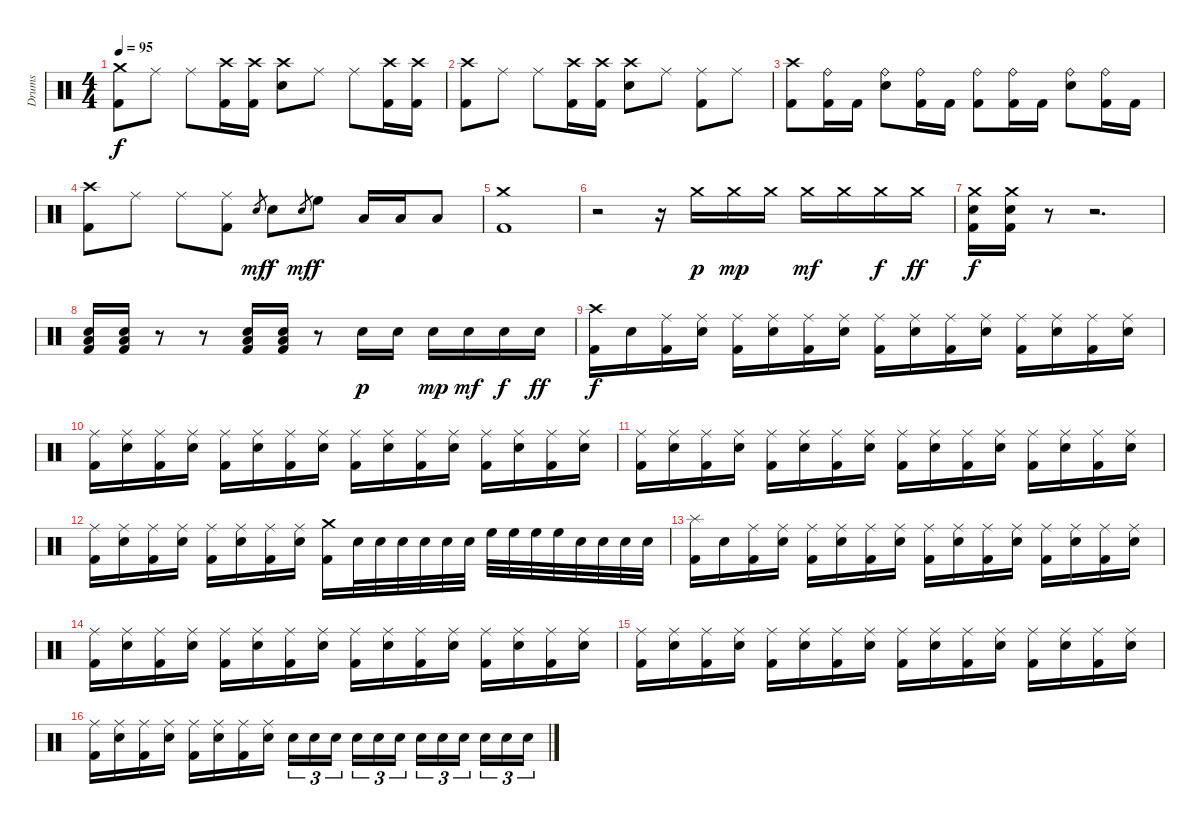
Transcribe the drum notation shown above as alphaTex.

\track ("Drums" "Drums") {instrument percussion}
\staff {score}
\articulation defaults
\ts (4 4)
\tempo 95
\clef neutral
\ks c
("Crash medium (hit)" "Kick (hit) 2").8{dy f} "Ride (middle)".8 "Ride (middle)".8 ("Crash high (hit)" "Kick (hit) 2").16 ("Crash high (hit)" "Kick (hit) 2").16 ("Crash high (hit)" "Snare (hit) 2").8 "Ride (middle)".8 "Ride (middle)".8 ("Crash high (hit)" "Kick (hit) 2").16 ("Crash high (hit)" "Kick (hit) 2").16 |
("Crash high (hit)" "Kick (hit) 2").8 "Ride (middle)".8 "Ride (middle)".8 ("Crash high (hit)" "Kick (hit) 2").16 ("Crash high (hit)" "Kick (hit) 2").16 ("Crash high (hit)" "Snare (hit) 2").8 "Ride (middle)".8 ("Ride (middle)" "Kick (hit) 2").8 "Ride (middle)".8 |
("Crash high (hit)" "Kick (hit) 2").8 ("Ride (bell)" "Kick (hit) 2").16 "Kick (hit) 2".16 ("Ride (bell)" "Snare (hit) 2").8 ("Ride (bell)" "Kick (hit) 2").16 "Kick (hit) 2".16 ("Ride (bell)" "Kick (hit) 2").8 ("Ride (bell)" "Kick (hit) 2").16 "Kick (hit) 2".16 ("Ride (bell)" "Snare (hit) 2").8 ("Ride (bell)" "Kick (hit) 2").16 "Kick (hit) 2".16 |
("Crash high (hit)" "Kick (hit) 2").8 "Ride (middle)".8 "Ride (middle)".8 ("Ride (middle)" "Kick (hit) 2").8 "Snare (hit)".8{gr dy mf} "Snare (hit) 2".8{dy f} "Snare (hit)".8{gr dy mf} "High Floor Tom (hit)".8{dy f} "Low Tom (hit)".16 "Low Tom (hit)".16 "Low Floor Tom (hit)".8 |
("Crash medium (hit)" "Kick (hit) 2").1 |
r.2 r.16 "Crash medium (hit)".16{dy p} "Crash medium (hit)".16{dy mp} "Crash medium (hit)".16 "Crash medium (hit)".16{dy mf} "Crash medium (hit)".16 "Crash medium (hit)".16{dy f} "Crash medium (hit)".16{dy ff} |
("Crash medium (hit)" "Snare (hit) 2" "Kick (hit) 2").16{dy f} ("Crash medium (hit)" "Snare (hit) 2" "Kick (hit) 2").16 r.8 r.2{d} |
("Low Floor Tom (hit)" "Snare (hit) 2" "Kick (hit) 2").16 ("Low Floor Tom (hit)" "Snare (hit) 2" "Kick (hit) 2").16 r.8 r.8 ("Low Floor Tom (hit)" "Snare (hit) 2" "Kick (hit) 2").16 ("Low Floor Tom (hit)" "Snare (hit) 2" "Kick (hit) 2").16 r.8 "Snare (hit) 2".16{dy p} "Snare (hit) 2".16 "Snare (hit) 2".16{dy mp} "Snare (hit) 2".16{dy mf} "Snare (hit) 2".16{dy f} "Snare (hit) 2".16{dy ff} |
("Crash high (hit)" "Kick (hit) 2").16{dy f} "Snare (hit) 2".16 ("Ride (middle)" "Kick (hit) 2").16 ("Ride (middle)" "Snare (hit) 2").16 ("Ride (middle)" "Kick (hit) 2").16 ("Ride (middle)" "Snare (hit) 2").16 ("Ride (middle)" "Kick (hit) 2").16 ("Ride (middle)" "Snare (hit) 2").16 ("Ride (middle)" "Kick (hit) 2").16 ("Ride (middle)" "Snare (hit) 2").16 ("Ride (middle)" "Kick (hit) 2").16 ("Ride (middle)" "Snare (hit) 2").16 ("Ride (middle)" "Kick (hit) 2").16 ("Ride (middle)" "Snare (hit) 2").16 ("Ride (middle)" "Kick (hit) 2").16 ("Ride (middle)" "Snare (hit) 2").16 |
("Ride (middle)" "Kick (hit) 2").16 ("Ride (middle)" "Snare (hit) 2").16 ("Ride (middle)" "Kick (hit) 2").16 ("Ride (middle)" "Snare (hit) 2").16 ("Ride (middle)" "Kick (hit) 2").16 ("Ride (middle)" "Snare (hit) 2").16 ("Ride (middle)" "Kick (hit) 2").16 ("Ride (middle)" "Snare (hit) 2").16 ("Ride (middle)" "Kick (hit) 2").16 ("Ride (middle)" "Snare (hit) 2").16 ("Ride (middle)" "Kick (hit) 2").16 ("Ride (middle)" "Snare (hit) 2").16 ("Ride (middle)" "Kick (hit) 2").16 ("Ride (middle)" "Snare (hit) 2").16 ("Ride (middle)" "Kick (hit) 2").16 ("Ride (middle)" "Snare (hit) 2").16 |
("Ride (middle)" "Kick (hit) 2").16 ("Ride (middle)" "Snare (hit) 2").16 ("Ride (middle)" "Kick (hit) 2").16 ("Ride (middle)" "Snare (hit) 2").16 ("Ride (middle)" "Kick (hit) 2").16 ("Ride (middle)" "Snare (hit) 2").16 ("Ride (middle)" "Kick (hit) 2").16 ("Ride (middle)" "Snare (hit) 2").16 ("Ride (middle)" "Kick (hit) 2").16 ("Ride (middle)" "Snare (hit) 2").16 ("Ride (middle)" "Kick (hit) 2").16 ("Ride (middle)" "Snare (hit) 2").16 ("Ride (middle)" "Kick (hit) 2").16 ("Ride (middle)" "Snare (hit) 2").16 ("Ride (middle)" "Kick (hit) 2").16 ("Ride (middle)" "Snare (hit) 2").16 |
("Ride (middle)" "Kick (hit) 2").16 ("Ride (middle)" "Snare (hit) 2").16 ("Ride (middle)" "Kick (hit) 2").16 ("Ride (middle)" "Snare (hit) 2").16 ("Ride (middle)" "Kick (hit) 2").16 ("Ride (middle)" "Snare (hit) 2").16 ("Ride (middle)" "Kick (hit) 2").16 ("Ride (middle)" "Snare (hit) 2").16 ("Crash medium (hit)" "Kick (hit) 2").16 "Snare (hit) 2".32 "Snare (hit) 2".32 "Snare (hit) 2".32 "Snare (hit) 2".32 "Snare (hit) 2".32 "Snare (hit) 2".32 "High Floor Tom (hit)".32 "High Floor Tom (hit)".32 "High Floor Tom (hit)".32 "High Floor Tom (hit)".32 "Snare (hit) 2".32 "Snare (hit) 2".32 "Snare (hit) 2".32 "Snare (hit) 2".32 |
("Splash (hit)" "Kick (hit) 2").16 "Snare (hit) 2".16 ("Ride (middle)" "Kick (hit) 2").16 ("Ride (middle)" "Snare (hit) 2").16 ("Ride (middle)" "Kick (hit) 2").16 ("Ride (middle)" "Snare (hit) 2").16 ("Ride (middle)" "Kick (hit) 2").16 ("Ride (middle)" "Snare (hit) 2").16 ("Ride (middle)" "Kick (hit) 2").16 ("Ride (middle)" "Snare (hit) 2").16 ("Ride (middle)" "Kick (hit) 2").16 ("Ride (middle)" "Snare (hit) 2").16 ("Ride (middle)" "Kick (hit) 2").16 ("Ride (middle)" "Snare (hit) 2").16 ("Ride (middle)" "Kick (hit) 2").16 ("Ride (middle)" "Snare (hit) 2").16 |
("Ride (middle)" "Kick (hit) 2").16 ("Ride (middle)" "Snare (hit) 2").16 ("Ride (middle)" "Kick (hit) 2").16 ("Ride (middle)" "Snare (hit) 2").16 ("Ride (middle)" "Kick (hit) 2").16 ("Ride (middle)" "Snare (hit) 2").16 ("Ride (middle)" "Kick (hit) 2").16 ("Ride (middle)" "Snare (hit) 2").16 ("Ride (middle)" "Kick (hit) 2").16 ("Ride (middle)" "Snare (hit) 2").16 ("Ride (middle)" "Kick (hit) 2").16 ("Ride (middle)" "Snare (hit) 2").16 ("Ride (middle)" "Kick (hit) 2").16 ("Ride (middle)" "Snare (hit) 2").16 ("Ride (middle)" "Kick (hit) 2").16 ("Ride (middle)" "Snare (hit) 2").16 |
("Ride (middle)" "Kick (hit) 2").16 ("Ride (middle)" "Snare (hit) 2").16 ("Ride (middle)" "Kick (hit) 2").16 ("Ride (middle)" "Snare (hit) 2").16 ("Ride (middle)" "Kick (hit) 2").16 ("Ride (middle)" "Snare (hit) 2").16 ("Ride (middle)" "Kick (hit) 2").16 ("Ride (middle)" "Snare (hit) 2").16 ("Ride (middle)" "Kick (hit) 2").16 ("Ride (middle)" "Snare (hit) 2").16 ("Ride (middle)" "Kick (hit) 2").16 ("Ride (middle)" "Snare (hit) 2").16 ("Ride (middle)" "Kick (hit) 2").16 ("Ride (middle)" "Snare (hit) 2").16 ("Ride (middle)" "Kick (hit) 2").16 ("Ride (middle)" "Snare (hit) 2").16 |
("Ride (middle)" "Kick (hit) 2").16 ("Ride (middle)" "Snare (hit) 2").16 ("Ride (middle)" "Kick (hit) 2").16 ("Ride (middle)" "Snare (hit) 2").16 ("Ride (middle)" "Kick (hit) 2").16 ("Ride (middle)" "Snare (hit) 2").16 ("Ride (middle)" "Kick (hit) 2").16 ("Ride (middle)" "Snare (hit) 2").16 "Snare (hit) 2".16{tu (3 2)} "Snare (hit) 2".16{tu (3 2)} "Snare (hit) 2".16{tu (3 2)} "Snare (hit) 2".16{tu (3 2)} "Snare (hit) 2".16{tu (3 2)} "Snare (hit) 2".16{tu (3 2)} "Snare (hit) 2".16{tu (3 2)} "Snare (hit) 2".16{tu (3 2)} "Snare (hit) 2".16{tu (3 2)} "Snare (hit) 2".16{tu (3 2)} "Snare (hit) 2".16{tu (3 2)} "Snare (hit) 2".16{tu (3 2)}
